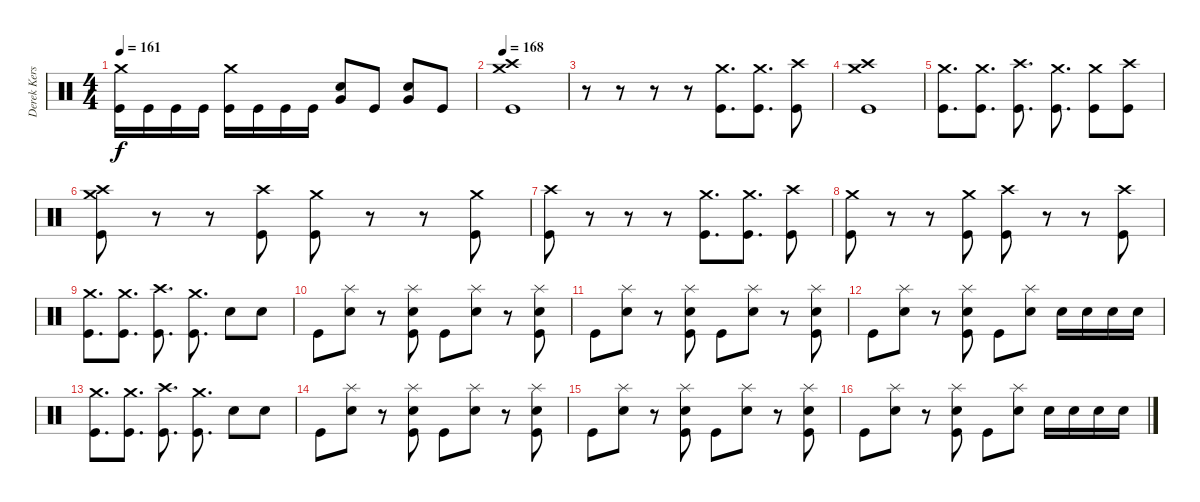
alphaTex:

\track ("Derek Kerswill" "Derek Kers") {instrument percussion}
\staff {score}
\articulation defaults
\ts (4 4)
\tempo 161
\clef neutral
\ks c
("Crash medium (hit)" "Kick (hit)").16{dy f} "Kick (hit)".16 "Kick (hit)".16 "Kick (hit)".16 ("Crash medium (hit)" "Kick (hit)").16 "Kick (hit)".16 "Kick (hit)".16 "Kick (hit)".16 ("Very Low Tom (hit)" "Electric Snare (hit)").8 "Kick (hit)".8 ("Very Low Tom (hit)" "Electric Snare (hit)").8 "Kick (hit)".8 |
\tempo 168
("Crash high (hit)" "Crash medium (hit)" "Kick (hit)").1 |
r.8 r.8 r.8 r.8 ("Crash medium (hit)" "Kick (hit)").8{d} ("Crash medium (hit)" "Kick (hit)").8{d} ("Crash high (hit)" "Kick (hit)").8 |
("Crash medium (hit)" "Crash high (hit)" "Kick (hit)").1 |
("Crash medium (hit)" "Kick (hit)").8{d} ("Crash medium (hit)" "Kick (hit)").8{d} ("Crash high (hit)" "Kick (hit)").8{d} ("Crash medium (hit)" "Kick (hit)").8{d} ("Crash medium (hit)" "Kick (hit)").8 ("Crash high (hit)" "Kick (hit)").8 |
("Crash medium (hit)" "Crash high (hit)" "Kick (hit)").8 r.8 r.8 ("Crash high (hit)" "Kick (hit)").8 ("Crash medium (hit)" "Kick (hit)").8 r.8 r.8 ("Crash medium (hit)" "Kick (hit)").8 |
("Crash high (hit)" "Kick (hit)").8 r.8 r.8 r.8 ("Crash medium (hit)" "Kick (hit)").8{d} ("Crash medium (hit)" "Kick (hit)").8{d} ("Crash high (hit)" "Kick (hit)").8 |
("Crash medium (hit)" "Kick (hit)").8 r.8 r.8 ("Crash medium (hit)" "Kick (hit)").8 ("Crash high (hit)" "Kick (hit)").8 r.8 r.8 ("Crash high (hit)" "Kick (hit)").8 |
("Crash medium (hit)" "Kick (hit)").8{d} ("Crash medium (hit)" "Kick (hit)").8{d} ("Crash high (hit)" "Kick (hit)").8{d} ("Crash medium (hit)" "Kick (hit)").8{d} "Electric Snare (hit)".8 "Electric Snare (hit)".8 |
"Kick (hit)".8 ("Splash (hit)" "Electric Snare (hit)").8 r.8 ("Splash (hit)" "Electric Snare (hit)" "Kick (hit)").8 "Kick (hit)".8 ("Splash (hit)" "Electric Snare (hit)").8 r.8 ("Splash (hit)" "Electric Snare (hit)" "Kick (hit)").8 |
"Kick (hit)".8 ("Splash (hit)" "Electric Snare (hit)").8 r.8 ("Splash (hit)" "Electric Snare (hit)" "Kick (hit)").8 "Kick (hit)".8 ("Splash (hit)" "Electric Snare (hit)").8 r.8 ("Splash (hit)" "Electric Snare (hit)" "Kick (hit)").8 |
"Kick (hit)".8 ("Splash (hit)" "Electric Snare (hit)").8 r.8 ("Splash (hit)" "Electric Snare (hit)" "Kick (hit)").8 "Kick (hit)".8 ("Splash (hit)" "Electric Snare (hit)").8 "Electric Snare (hit)".16 "Electric Snare (hit)".16 "Electric Snare (hit)".16 "Electric Snare (hit)".16 |
("Crash medium (hit)" "Kick (hit)").8{d} ("Crash medium (hit)" "Kick (hit)").8{d} ("Crash high (hit)" "Kick (hit)").8{d} ("Crash medium (hit)" "Kick (hit)").8{d} "Electric Snare (hit)".8 "Electric Snare (hit)".8 |
"Kick (hit)".8 ("Splash (hit)" "Electric Snare (hit)").8 r.8 ("Splash (hit)" "Electric Snare (hit)" "Kick (hit)").8 "Kick (hit)".8 ("Splash (hit)" "Electric Snare (hit)").8 r.8 ("Splash (hit)" "Electric Snare (hit)" "Kick (hit)").8 |
"Kick (hit)".8 ("Splash (hit)" "Electric Snare (hit)").8 r.8 ("Splash (hit)" "Electric Snare (hit)" "Kick (hit)").8 "Kick (hit)".8 ("Splash (hit)" "Electric Snare (hit)").8 r.8 ("Splash (hit)" "Electric Snare (hit)" "Kick (hit)").8 |
"Kick (hit)".8 ("Splash (hit)" "Electric Snare (hit)").8 r.8 ("Splash (hit)" "Electric Snare (hit)" "Kick (hit)").8 "Kick (hit)".8 ("Splash (hit)" "Electric Snare (hit)").8 "Electric Snare (hit)".16 "Electric Snare (hit)".16 "Electric Snare (hit)".16 "Electric Snare (hit)".16
